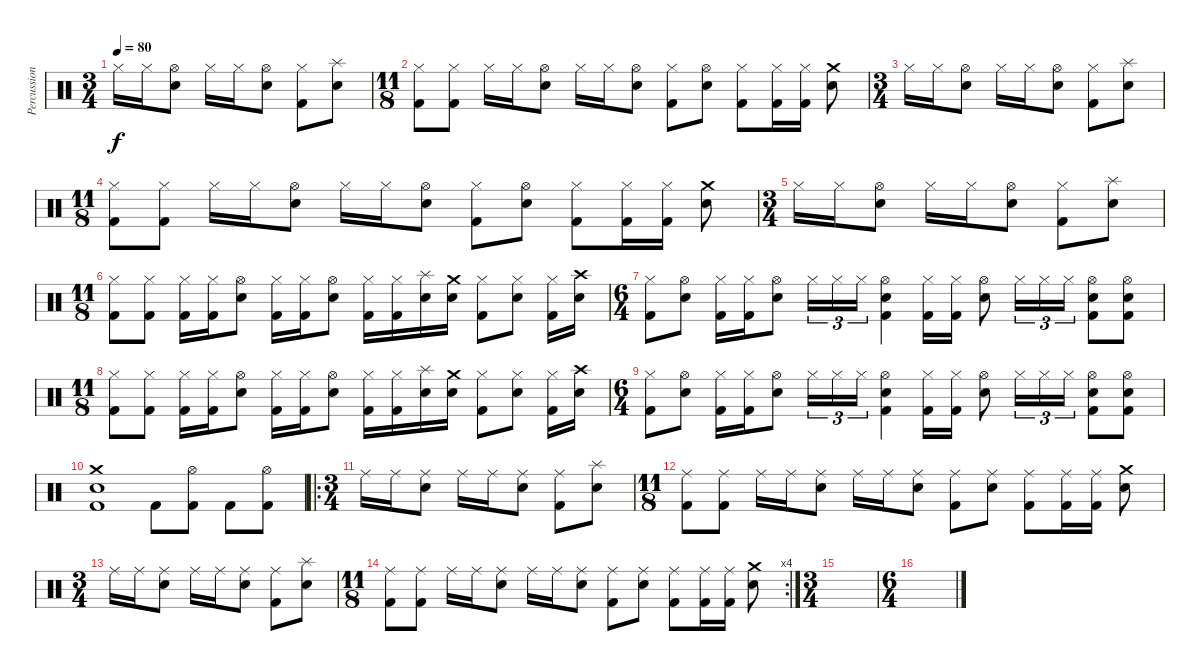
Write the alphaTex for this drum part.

\track ("Percussion" "Percussion") {instrument percussion}
\staff {score}
\articulation defaults
\ts (3 4)
\tempo 80
\clef neutral
\ks c "Hi-Hat (closed)".16{dy f} "Hi-Hat (closed)".16
("Hi-Hat (open)" "Electric Snare (hit)").8 "Hi-Hat (closed)".16 "Hi-Hat (closed)".16 ("Hi-Hat (open)" "Electric Snare (hit)").8 ("Hi-Hat (closed)" "Kick (hit) 2").8 ("Splash (hit)" "Electric Snare (hit)").8 |
\ts (11 8)
("Hi-Hat (closed)" "Kick (hit) 2").8 ("Hi-Hat (closed)" "Kick (hit) 2").8 "Hi-Hat (closed)".16 "Hi-Hat (closed)".16 ("Hi-Hat (open)" "Electric Snare (hit)").8 "Hi-Hat (closed)".16 "Hi-Hat (closed)".16 ("Hi-Hat (open)" "Electric Snare (hit)").8 ("Hi-Hat (closed)" "Kick (hit) 2").8 ("Hi-Hat (open)" "Electric Snare (hit)").8 ("Hi-Hat (closed)" "Kick (hit) 2").8 ("Hi-Hat (closed)" "Kick (hit) 2").16 ("Hi-Hat (closed)" "Kick (hit) 2").16 ("Crash medium (hit)" "Electric Snare (hit)").8 |
\ts (3 4)
"Hi-Hat (closed)".16 "Hi-Hat (closed)".16 ("Hi-Hat (open)" "Electric Snare (hit)").8 "Hi-Hat (closed)".16 "Hi-Hat (closed)".16 ("Hi-Hat (open)" "Electric Snare (hit)").8 ("Hi-Hat (closed)" "Kick (hit) 2").8 ("Splash (hit)" "Electric Snare (hit)").8 |
\ts (11 8)
("Hi-Hat (closed)" "Kick (hit) 2").8 ("Hi-Hat (closed)" "Kick (hit) 2").8 "Hi-Hat (closed)".16 "Hi-Hat (closed)".16 ("Hi-Hat (open)" "Electric Snare (hit)").8 "Hi-Hat (closed)".16 "Hi-Hat (closed)".16 ("Hi-Hat (open)" "Electric Snare (hit)").8 ("Hi-Hat (closed)" "Kick (hit) 2").8 ("Hi-Hat (open)" "Electric Snare (hit)").8 ("Hi-Hat (closed)" "Kick (hit) 2").8 ("Hi-Hat (closed)" "Kick (hit) 2").16 ("Hi-Hat (closed)" "Kick (hit) 2").16 ("Crash medium (hit)" "Electric Snare (hit)").8 |
\ts (3 4)
"Hi-Hat (closed)".16 "Hi-Hat (closed)".16 ("Hi-Hat (open)" "Electric Snare (hit)").8 "Hi-Hat (closed)".16 "Hi-Hat (closed)".16 ("Hi-Hat (open)" "Electric Snare (hit)").8 ("Hi-Hat (closed)" "Kick (hit) 2").8 ("Splash (hit)" "Electric Snare (hit)").8 |
\ts (11 8)
("Hi-Hat (closed)" "Kick (hit) 2").8 ("Hi-Hat (closed)" "Kick (hit) 2").8 ("Hi-Hat (closed)" "Kick (hit) 2").16 ("Hi-Hat (closed)" "Kick (hit) 2").16 ("Hi-Hat (open)" "Electric Snare (hit)").8 ("Hi-Hat (closed)" "Kick (hit) 2").16 ("Hi-Hat (closed)" "Kick (hit) 2").16 ("Hi-Hat (open)" "Electric Snare (hit)").8 ("Hi-Hat (closed)" "Kick (hit) 2").16 ("Hi-Hat (closed)" "Kick (hit) 2").16 ("Splash (hit)" "Electric Snare (hit)").16 ("Crash medium (hit)" "Electric Snare (hit)").16 ("Hi-Hat (closed)" "Kick (hit) 2").8 ("Hi-Hat (closed)" "Electric Snare (hit)").8 ("Hi-Hat (closed)" "Kick (hit) 2").16 ("Crash high (hit)" "Electric Snare (hit)").16 |
\ts (6 4)
("Hi-Hat (closed)" "Kick (hit) 2").8 ("Hi-Hat (open)" "Electric Snare (hit)").8 ("Hi-Hat (closed)" "Kick (hit) 2").16 ("Hi-Hat (closed)" "Kick (hit) 2").16 ("Hi-Hat (open)" "Electric Snare (hit)").8 "Hi-Hat (closed)".16{tu (3 2)} "Hi-Hat (closed)".16{tu (3 2)} "Hi-Hat (closed)".16{tu (3 2)} ("Hi-Hat (open)" "Electric Snare (hit)" "Kick (hit) 2").4 ("Hi-Hat (closed)" "Kick (hit) 2").16 ("Hi-Hat (closed)" "Kick (hit) 2").16 ("Hi-Hat (open)" "Electric Snare (hit)").8 "Hi-Hat (closed)".16{tu (3 2)} "Hi-Hat (closed)".16{tu (3 2)} "Hi-Hat (closed)".16{tu (3 2)} ("Hi-Hat (open)" "Electric Snare (hit)" "Kick (hit) 2").8 ("Hi-Hat (open)" "Electric Snare (hit)" "Kick (hit) 2").8 |
\ts (11 8)
("Hi-Hat (closed)" "Kick (hit) 2").8 ("Hi-Hat (closed)" "Kick (hit) 2").8 ("Hi-Hat (closed)" "Kick (hit) 2").16 ("Hi-Hat (closed)" "Kick (hit) 2").16 ("Hi-Hat (open)" "Electric Snare (hit)").8 ("Hi-Hat (closed)" "Kick (hit) 2").16 ("Hi-Hat (closed)" "Kick (hit) 2").16 ("Hi-Hat (open)" "Electric Snare (hit)").8 ("Hi-Hat (closed)" "Kick (hit) 2").16 ("Hi-Hat (closed)" "Kick (hit) 2").16 ("Splash (hit)" "Electric Snare (hit)").16 ("Crash medium (hit)" "Electric Snare (hit)").16 ("Hi-Hat (closed)" "Kick (hit) 2").8 ("Hi-Hat (closed)" "Electric Snare (hit)").8 ("Hi-Hat (closed)" "Kick (hit) 2").16 ("Crash high (hit)" "Electric Snare (hit)").16 |
\ts (6 4)
("Hi-Hat (closed)" "Kick (hit) 2").8 ("Hi-Hat (open)" "Electric Snare (hit)").8 ("Hi-Hat (closed)" "Kick (hit) 2").16 ("Hi-Hat (closed)" "Kick (hit) 2").16 ("Hi-Hat (open)" "Electric Snare (hit)").8 "Hi-Hat (closed)".16{tu (3 2)} "Hi-Hat (closed)".16{tu (3 2)} "Hi-Hat (closed)".16{tu (3 2)} ("Hi-Hat (open)" "Electric Snare (hit)" "Kick (hit) 2").4 ("Hi-Hat (closed)" "Kick (hit) 2").16 ("Hi-Hat (closed)" "Kick (hit) 2").16 ("Hi-Hat (open)" "Electric Snare (hit)").8 "Hi-Hat (closed)".16{tu (3 2)} "Hi-Hat (closed)".16{tu (3 2)} "Hi-Hat (closed)".16{tu (3 2)} ("Hi-Hat (open)" "Electric Snare (hit)" "Kick (hit) 2").8 ("Hi-Hat (open)" "Electric Snare (hit)" "Kick (hit) 2").8 |
("Crash medium (hit)" "Electric Snare (hit)" "Kick (hit) 2").1 "Kick (hit) 2".8 ("Hi-Hat (open)" "Kick (hit) 2").8 "Kick (hit) 2".8 ("Hi-Hat (open)" "Kick (hit) 2").8 |
\ro
\ts (3 4)
"Ride (middle)".16 "Ride (middle)".16 ("Ride (middle)" "Electric Snare (hit)").8 "Ride (middle)".16 "Ride (middle)".16 ("Ride (middle)" "Electric Snare (hit)").8 ("Ride (middle)" "Kick (hit) 2").8 ("Splash (hit)" "Electric Snare (hit)").8 |
\ts (11 8)
("Ride (middle)" "Kick (hit) 2").8 ("Ride (middle)" "Kick (hit) 2").8 "Ride (middle)".16 "Ride (middle)".16 ("Ride (middle)" "Electric Snare (hit)").8 "Ride (middle)".16 "Ride (middle)".16 ("Ride (middle)" "Electric Snare (hit)").8 ("Ride (middle)" "Kick (hit) 2").8 ("Ride (middle)" "Electric Snare (hit)").8 ("Ride (middle)" "Kick (hit) 2").8 ("Ride (middle)" "Kick (hit) 2").16 ("Ride (middle)" "Kick (hit) 2").16 ("Crash medium (hit)" "Electric Snare (hit)").8 |
\ts (3 4)
"Ride (middle)".16 "Ride (middle)".16 ("Ride (middle)" "Electric Snare (hit)").8 "Ride (middle)".16 "Ride (middle)".16 ("Ride (middle)" "Electric Snare (hit)").8 ("Ride (middle)" "Kick (hit) 2").8 ("Splash (hit)" "Electric Snare (hit)").8 |
\rc 4
\ts (11 8)
("Ride (middle)" "Kick (hit) 2").8 ("Ride (middle)" "Kick (hit) 2").8 "Ride (middle)".16 "Ride (middle)".16 ("Ride (middle)" "Electric Snare (hit)").8 "Ride (middle)".16 "Ride (middle)".16 ("Ride (middle)" "Electric Snare (hit)").8 ("Ride (middle)" "Kick (hit) 2").8 ("Ride (middle)" "Electric Snare (hit)").8 ("Ride (middle)" "Kick (hit) 2").8 ("Ride (middle)" "Kick (hit) 2").16 ("Ride (middle)" "Kick (hit) 2").16 ("Crash medium (hit)" "Electric Snare (hit)").8 |
\ts (3 4)
|
\ts (6 4)
